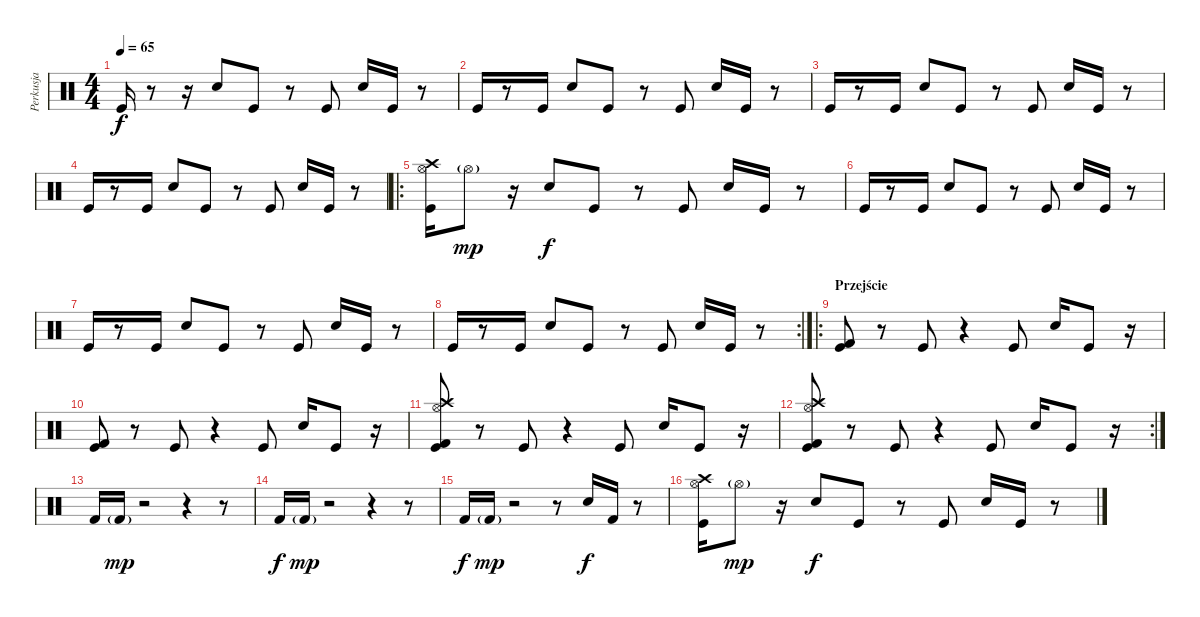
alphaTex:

\track ("Perkusja" "Perkusja") {instrument percussion}
\staff {score}
\articulation defaults
\ts (4 4)
\tempo 65
\clef neutral
\ks c "Kick (hit)".16{dy f}
r.8 r.16 "Snare (hit) 2".8 "Kick (hit)".8 r.8 "Kick (hit)".8 "Snare (hit) 2".16 "Kick (hit)".16 r.8 |
"Kick (hit)".16 r.8 "Kick (hit)".16 "Snare (hit) 2".8 "Kick (hit)".8 r.8 "Kick (hit)".8 "Snare (hit) 2".16 "Kick (hit)".16 r.8 |
"Kick (hit)".16 r.8 "Kick (hit)".16 "Snare (hit) 2".8 "Kick (hit)".8 r.8 "Kick (hit)".8 "Snare (hit) 2".16 "Kick (hit)".16 r.8 |
"Kick (hit)".16 r.8 "Kick (hit)".16 "Snare (hit) 2".8 "Kick (hit)".8 r.8 "Kick (hit)".8 "Snare (hit) 2".16 "Kick (hit)".16 r.8 |
\ro
("Kick (hit)" "Hi-Hat (open)" "Crash high (hit)").16 "Hi-Hat (open)"{g}.8{dy mp} r.16 "Snare (hit) 2".8{dy f} "Kick (hit)".8 r.8 "Kick (hit)".8 "Snare (hit) 2".16 "Kick (hit)".16 r.8 |
"Kick (hit)".16 r.8 "Kick (hit)".16 "Snare (hit) 2".8 "Kick (hit)".8 r.8 "Kick (hit)".8 "Snare (hit) 2".16 "Kick (hit)".16 r.8 |
"Kick (hit)".16 r.8 "Kick (hit)".16 "Snare (hit) 2".8 "Kick (hit)".8 r.8 "Kick (hit)".8 "Snare (hit) 2".16 "Kick (hit)".16 r.8 |
\rc 2 "Kick (hit)".16
r.8 "Kick (hit)".16 "Snare (hit) 2".8 "Kick (hit)".8 r.8 "Kick (hit)".8 "Snare (hit) 2".16 "Kick (hit)".16 r.8 |
\ro
\section ("" "Przejście")
("Kick (hit)" "Kick (hit) 2").8{volume 16} r.8 "Kick (hit)".8 r.4 "Kick (hit)".8 "Snare (hit) 2".16 "Kick (hit)".8 r.16 |
("Kick (hit)" "Kick (hit) 2").8 r.8 "Kick (hit)".8 r.4 "Kick (hit)".8 "Snare (hit) 2".16 "Kick (hit)".8 r.16 |
("Kick (hit)" "Kick (hit) 2" "Hi-Hat (open)" "Crash high (hit)").8 r.8 "Kick (hit)".8 r.4 "Kick (hit)".8 "Snare (hit) 2".16 "Kick (hit)".8 r.16 |
\rc 2
("Kick (hit)" "Kick (hit) 2" "Hi-Hat (open)" "Crash high (hit)").8 r.8 "Kick (hit)".8 r.4 "Kick (hit)".8 "Snare (hit) 2".16 "Kick (hit)".8 r.16 |
"Kick (hit) 2".16 "Kick (hit) 2"{g}.16{dy mp} r.2 r.4 r.8 |
"Kick (hit) 2".16{dy f} "Kick (hit) 2"{g}.16{dy mp} r.2 r.4 r.8 |
"Kick (hit) 2".16{dy f} "Kick (hit) 2"{g}.16{dy mp} r.2 r.8 "Snare (hit) 2".16{dy f volume 13} "Kick (hit) 2".16 r.8 |
("Kick (hit)" "Hi-Hat (open)" "Crash high (hit)").16 "Hi-Hat (open)"{g}.8{dy mp} r.16 "Snare (hit) 2".8{dy f} "Kick (hit)".8 r.8 "Kick (hit)".8 "Snare (hit) 2".16 "Kick (hit)".16 r.8
